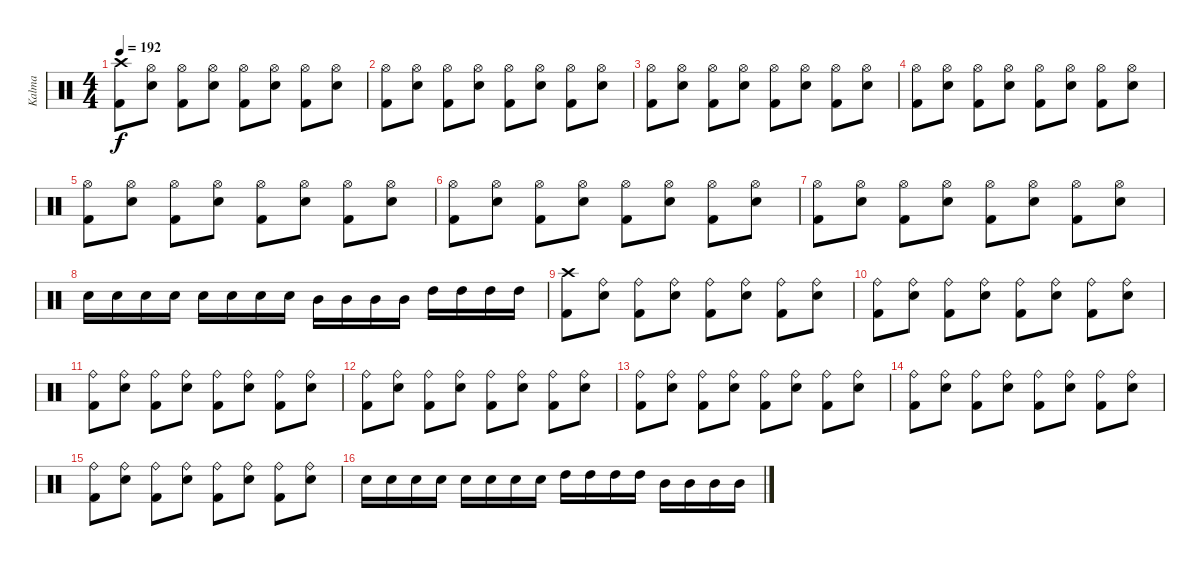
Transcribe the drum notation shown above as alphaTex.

\track ("Kalma" "Kalma") {instrument percussion}
\staff {score}
\articulation defaults
\ts (4 4)
\tempo 192
\clef neutral
\ks c
("Crash high (hit)" "Kick (hit) 2").8{dy f} ("Hi-Hat (open)" "Snare (hit) 2").8 ("Hi-Hat (open)" "Kick (hit) 2").8 ("Hi-Hat (open)" "Snare (hit) 2").8 ("Hi-Hat (open)" "Kick (hit) 2").8 ("Hi-Hat (open)" "Snare (hit) 2").8 ("Hi-Hat (open)" "Kick (hit) 2").8 ("Hi-Hat (open)" "Snare (hit) 2").8 |
("Hi-Hat (open)" "Kick (hit) 2").8 ("Hi-Hat (open)" "Snare (hit) 2").8 ("Hi-Hat (open)" "Kick (hit) 2").8 ("Hi-Hat (open)" "Snare (hit) 2").8 ("Hi-Hat (open)" "Kick (hit) 2").8 ("Hi-Hat (open)" "Snare (hit) 2").8 ("Hi-Hat (open)" "Kick (hit) 2").8 ("Hi-Hat (open)" "Snare (hit) 2").8 |
("Hi-Hat (open)" "Kick (hit) 2").8 ("Hi-Hat (open)" "Snare (hit) 2").8 ("Hi-Hat (open)" "Kick (hit) 2").8 ("Hi-Hat (open)" "Snare (hit) 2").8 ("Hi-Hat (open)" "Kick (hit) 2").8 ("Hi-Hat (open)" "Snare (hit) 2").8 ("Hi-Hat (open)" "Kick (hit) 2").8 ("Hi-Hat (open)" "Snare (hit) 2").8 |
("Hi-Hat (open)" "Kick (hit) 2").8 ("Hi-Hat (open)" "Snare (hit) 2").8 ("Hi-Hat (open)" "Kick (hit) 2").8 ("Hi-Hat (open)" "Snare (hit) 2").8 ("Hi-Hat (open)" "Kick (hit) 2").8 ("Hi-Hat (open)" "Snare (hit) 2").8 ("Hi-Hat (open)" "Kick (hit) 2").8 ("Hi-Hat (open)" "Snare (hit) 2").8 |
("Hi-Hat (open)" "Kick (hit) 2").8 ("Hi-Hat (open)" "Snare (hit) 2").8 ("Hi-Hat (open)" "Kick (hit) 2").8 ("Hi-Hat (open)" "Snare (hit) 2").8 ("Hi-Hat (open)" "Kick (hit) 2").8 ("Hi-Hat (open)" "Snare (hit) 2").8 ("Hi-Hat (open)" "Kick (hit) 2").8 ("Hi-Hat (open)" "Snare (hit) 2").8 |
("Hi-Hat (open)" "Kick (hit) 2").8 ("Hi-Hat (open)" "Snare (hit) 2").8 ("Hi-Hat (open)" "Kick (hit) 2").8 ("Hi-Hat (open)" "Snare (hit) 2").8 ("Hi-Hat (open)" "Kick (hit) 2").8 ("Hi-Hat (open)" "Snare (hit) 2").8 ("Hi-Hat (open)" "Kick (hit) 2").8 ("Hi-Hat (open)" "Snare (hit) 2").8 |
("Hi-Hat (open)" "Kick (hit) 2").8 ("Hi-Hat (open)" "Snare (hit) 2").8 ("Hi-Hat (open)" "Kick (hit) 2").8 ("Hi-Hat (open)" "Snare (hit) 2").8 ("Hi-Hat (open)" "Kick (hit) 2").8 ("Hi-Hat (open)" "Snare (hit) 2").8 ("Hi-Hat (open)" "Kick (hit) 2").8 ("Hi-Hat (open)" "Snare (hit) 2").8 |
"Snare (hit) 2".16 "Snare (hit) 2".16 "Snare (hit) 2".16 "Snare (hit) 2".16 "Snare (hit) 2".16 "Snare (hit) 2".16 "Snare (hit) 2".16 "Snare (hit) 2".16 "Mid Tom (hit)".16 "Mid Tom (hit)".16 "Mid Tom (hit)".16 "Mid Tom (hit)".16 "High Tom (hit)".16 "High Tom (hit)".16 "High Tom (hit)".16 "High Tom (hit)".16 |
("Crash high (hit)" "Kick (hit) 2").8 ("Ride (bell)" "Snare (hit) 2").8 ("Ride (bell)" "Kick (hit) 2").8 ("Ride (bell)" "Snare (hit) 2").8 ("Ride (bell)" "Kick (hit) 2").8 ("Ride (bell)" "Snare (hit) 2").8 ("Ride (bell)" "Kick (hit) 2").8 ("Ride (bell)" "Snare (hit) 2").8 |
("Ride (bell)" "Kick (hit) 2").8 ("Ride (bell)" "Snare (hit) 2").8 ("Ride (bell)" "Kick (hit) 2").8 ("Ride (bell)" "Snare (hit) 2").8 ("Ride (bell)" "Kick (hit) 2").8 ("Ride (bell)" "Snare (hit) 2").8 ("Ride (bell)" "Kick (hit) 2").8 ("Ride (bell)" "Snare (hit) 2").8 |
("Ride (bell)" "Kick (hit) 2").8 ("Ride (bell)" "Snare (hit) 2").8 ("Ride (bell)" "Kick (hit) 2").8 ("Ride (bell)" "Snare (hit) 2").8 ("Ride (bell)" "Kick (hit) 2").8 ("Ride (bell)" "Snare (hit) 2").8 ("Ride (bell)" "Kick (hit) 2").8 ("Ride (bell)" "Snare (hit) 2").8 |
("Ride (bell)" "Kick (hit) 2").8 ("Ride (bell)" "Snare (hit) 2").8 ("Ride (bell)" "Kick (hit) 2").8 ("Ride (bell)" "Snare (hit) 2").8 ("Ride (bell)" "Kick (hit) 2").8 ("Ride (bell)" "Snare (hit) 2").8 ("Ride (bell)" "Kick (hit) 2").8 ("Ride (bell)" "Snare (hit) 2").8 |
("Ride (bell)" "Kick (hit) 2").8 ("Ride (bell)" "Snare (hit) 2").8 ("Ride (bell)" "Kick (hit) 2").8 ("Ride (bell)" "Snare (hit) 2").8 ("Ride (bell)" "Kick (hit) 2").8 ("Ride (bell)" "Snare (hit) 2").8 ("Ride (bell)" "Kick (hit) 2").8 ("Ride (bell)" "Snare (hit) 2").8 |
("Ride (bell)" "Kick (hit) 2").8 ("Ride (bell)" "Snare (hit) 2").8 ("Ride (bell)" "Kick (hit) 2").8 ("Ride (bell)" "Snare (hit) 2").8 ("Ride (bell)" "Kick (hit) 2").8 ("Ride (bell)" "Snare (hit) 2").8 ("Ride (bell)" "Kick (hit) 2").8 ("Ride (bell)" "Snare (hit) 2").8 |
("Ride (bell)" "Kick (hit) 2").8 ("Ride (bell)" "Snare (hit) 2").8 ("Ride (bell)" "Kick (hit) 2").8 ("Ride (bell)" "Snare (hit) 2").8 ("Ride (bell)" "Kick (hit) 2").8 ("Ride (bell)" "Snare (hit) 2").8 ("Ride (bell)" "Kick (hit) 2").8 ("Ride (bell)" "Snare (hit) 2").8 |
"Snare (hit) 2".16 "Snare (hit) 2".16 "Snare (hit) 2".16 "Snare (hit) 2".16 "Snare (hit) 2".16 "Snare (hit) 2".16 "Snare (hit) 2".16 "Snare (hit) 2".16 "High Tom (hit)".16 "High Tom (hit)".16 "High Tom (hit)".16 "High Tom (hit)".16 "Mid Tom (hit)".16 "Mid Tom (hit)".16 "Mid Tom (hit)".16 "Mid Tom (hit)".16
